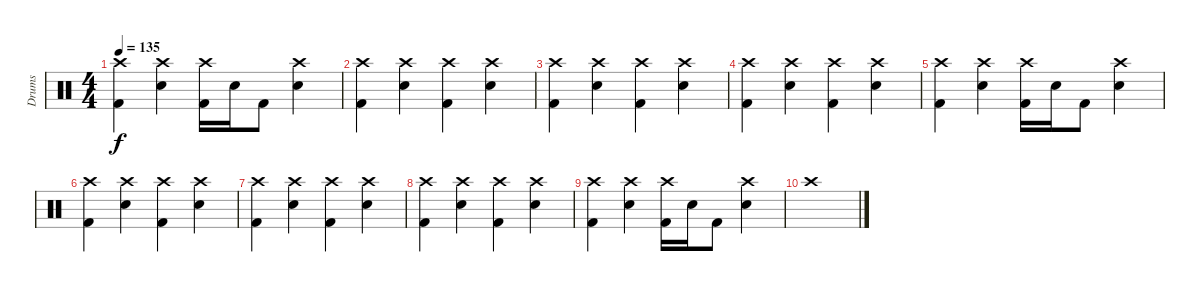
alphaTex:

\track ("Drums" "Drums") {instrument percussion}
\staff {score}
\articulation defaults
\ts (4 4)
\tempo 135
\clef neutral
\ks c
("Crash high (hit)" "Kick (hit) 2").4{dy f} ("Crash high (hit)" "Electric Snare (hit)").4 ("Crash high (hit)" "Kick (hit) 2").16 "Electric Snare (hit)".16 "Kick (hit) 2".8 ("Crash high (hit)" "Electric Snare (hit)").4 |
("Crash high (hit)" "Kick (hit) 2").4 ("Crash high (hit)" "Electric Snare (hit)").4 ("Crash high (hit)" "Kick (hit) 2").4 ("Crash high (hit)" "Electric Snare (hit)").4 |
("Crash high (hit)" "Kick (hit) 2").4 ("Crash high (hit)" "Electric Snare (hit)").4 ("Crash high (hit)" "Kick (hit) 2").4 ("Crash high (hit)" "Electric Snare (hit)").4 |
("Crash high (hit)" "Kick (hit) 2").4 ("Crash high (hit)" "Electric Snare (hit)").4 ("Crash high (hit)" "Kick (hit) 2").4 ("Crash high (hit)" "Electric Snare (hit)").4 |
("Crash high (hit)" "Kick (hit) 2").4 ("Crash high (hit)" "Electric Snare (hit)").4 ("Crash high (hit)" "Kick (hit) 2").16 "Electric Snare (hit)".16 "Kick (hit) 2".8 ("Crash high (hit)" "Electric Snare (hit)").4 |
("Crash high (hit)" "Kick (hit) 2").4 ("Crash high (hit)" "Electric Snare (hit)").4 ("Crash high (hit)" "Kick (hit) 2").4 ("Crash high (hit)" "Electric Snare (hit)").4 |
("Crash high (hit)" "Kick (hit) 2").4 ("Crash high (hit)" "Electric Snare (hit)").4 ("Crash high (hit)" "Kick (hit) 2").4 ("Crash high (hit)" "Electric Snare (hit)").4 |
("Crash high (hit)" "Kick (hit) 2").4 ("Crash high (hit)" "Electric Snare (hit)").4 ("Crash high (hit)" "Kick (hit) 2").4 ("Crash high (hit)" "Electric Snare (hit)").4 |
("Crash high (hit)" "Kick (hit) 2").4 ("Crash high (hit)" "Electric Snare (hit)").4 ("Crash high (hit)" "Kick (hit) 2").16 "Electric Snare (hit)".16 "Kick (hit) 2".8 ("Crash high (hit)" "Electric Snare (hit)").4 |
"Crash high (hit)".1
